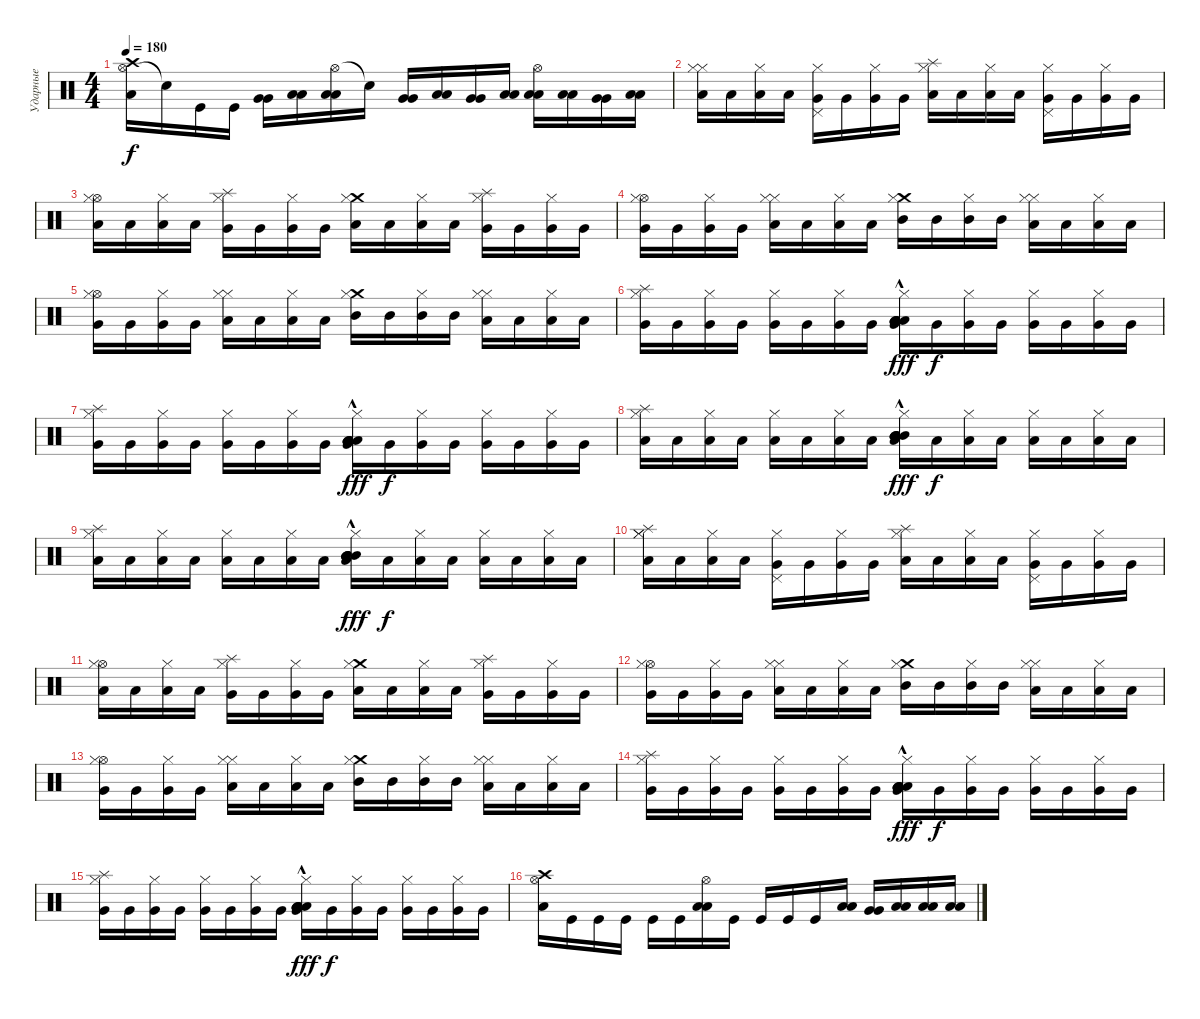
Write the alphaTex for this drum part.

\track ("Ударные" "Ударные") {instrument percussion}
\staff {score}
\articulation defaults
\ts (4 4)
\tempo 180
\clef neutral
\ks c
("Hi-Hat (open)" "Crash high (hit)" "Low Tom (hit)").16{dy f volume 13 balance 8} "Snare (hit)"{t}.16 "Kick (hit)".16 "Kick (hit)".16 ("Very Low Tom (hit)" "Very Low Tom (hit)").16{balance 10} ("Low Floor Tom (hit)" "Low Floor Tom (hit)").16{balance 5} ("Hi-Hat (open)" "Low Tom (hit)" "Low Tom (hit)").16{balance 8} "Snare (hit)"{t}.16 ("Very Low Tom (hit)" "Very Low Tom (hit)").16{balance 10} ("Low Floor Tom (hit)" "Low Floor Tom (hit)").16 ("Very Low Tom (hit)" "Very Low Tom (hit)").16{balance 10} ("Low Floor Tom (hit)" "Low Floor Tom (hit)").16 ("Hi-Hat (open)" "Low Tom (hit)" "Low Tom (hit)").16{balance 8} ("Low Floor Tom (hit)" "Low Floor Tom (hit)").16{balance 6} ("Very Low Tom (hit)" "Very Low Tom (hit)").16 ("Low Floor Tom (hit)" "Low Floor Tom (hit)").16{balance 5} |
("Hi-Hat (closed)" "Low Floor Tom (hit)" "Hi-Hat (closed)").16 "Low Floor Tom (hit)".16 ("Low Floor Tom (hit)" "Hi-Hat (closed)").16 "Low Floor Tom (hit)".16 ("Pedal Hi-Hat (hit)" "Very Low Tom (hit)" "Hi-Hat (closed)").16 "Very Low Tom (hit)".16 ("Very Low Tom (hit)" "Hi-Hat (closed)").16 "Very Low Tom (hit)".16 ("Splash (hit)" "Low Tom (hit)" "Hi-Hat (closed)").16 "Low Tom (hit)".16 ("Low Tom (hit)" "Hi-Hat (closed)").16 "Low Tom (hit)".16 ("Pedal Hi-Hat (hit)" "Very Low Tom (hit)" "Hi-Hat (closed)").16 "Very Low Tom (hit)".16 ("Very Low Tom (hit)" "Hi-Hat (closed)").16 "Very Low Tom (hit)".16 |
("Hi-Hat (open)" "Low Floor Tom (hit)" "Hi-Hat (closed)").16 "Low Floor Tom (hit)".16 ("Low Floor Tom (hit)" "Hi-Hat (closed)").16 "Low Floor Tom (hit)".16 ("Splash (hit)" "Very Low Tom (hit)" "Hi-Hat (closed)").16 "Very Low Tom (hit)".16 ("Very Low Tom (hit)" "Hi-Hat (closed)").16 "Very Low Tom (hit)".16 ("Crash medium (hit)" "Low Tom (hit)" "Hi-Hat (closed)").16 "Low Tom (hit)".16 ("Low Tom (hit)" "Hi-Hat (closed)").16 "Low Tom (hit)".16 ("Splash (hit)" "Very Low Tom (hit)" "Hi-Hat (closed)").16 "Very Low Tom (hit)".16 ("Very Low Tom (hit)" "Hi-Hat (closed)").16 "Very Low Tom (hit)".16 |
("Hi-Hat (open)" "Very Low Tom (hit)" "Hi-Hat (closed)").16 "Very Low Tom (hit)".16 ("Very Low Tom (hit)" "Hi-Hat (closed)").16 "Very Low Tom (hit)".16 ("Hi-Hat (closed)" "Low Tom (hit)" "Hi-Hat (closed)").16 "Low Tom (hit)".16 ("Low Tom (hit)" "Hi-Hat (closed)").16 "Low Tom (hit)".16 ("Crash medium (hit)" "Mid Tom (hit)" "Hi-Hat (closed)").16 "Mid Tom (hit)".16 ("Mid Tom (hit)" "Hi-Hat (closed)").16 "Mid Tom (hit)".16 ("Hi-Hat (closed)" "Low Tom (hit)" "Hi-Hat (closed)").16 "Low Tom (hit)".16 ("Low Tom (hit)" "Hi-Hat (closed)").16 "Low Tom (hit)".16 |
("Hi-Hat (open)" "Very Low Tom (hit)" "Hi-Hat (closed)").16 "Very Low Tom (hit)".16 ("Very Low Tom (hit)" "Hi-Hat (closed)").16 "Very Low Tom (hit)".16 ("Hi-Hat (closed)" "Low Tom (hit)" "Hi-Hat (closed)").16 "Low Tom (hit)".16 ("Low Tom (hit)" "Hi-Hat (closed)").16 "Low Tom (hit)".16 ("Crash medium (hit)" "Mid Tom (hit)" "Hi-Hat (closed)").16 "Mid Tom (hit)".16 ("Mid Tom (hit)" "Hi-Hat (closed)").16 "Mid Tom (hit)".16 ("Hi-Hat (closed)" "Low Tom (hit)" "Hi-Hat (closed)").16 "Low Tom (hit)".16 ("Low Tom (hit)" "Hi-Hat (closed)").16 "Low Tom (hit)".16 |
("Splash (hit)" "Very Low Tom (hit)" "Hi-Hat (closed)").16 "Very Low Tom (hit)".16 ("Very Low Tom (hit)" "Hi-Hat (closed)").16 "Very Low Tom (hit)".16 ("Very Low Tom (hit)" "Hi-Hat (closed)").16 "Very Low Tom (hit)".16 ("Very Low Tom (hit)" "Hi-Hat (closed)").16 "Very Low Tom (hit)".16 ("Low Tom (hit)"{hac} "Low Tom (hit)" "Low Tom (hit)" "Very Low Tom (hit)" "Hi-Hat (closed)" "Low Tom (hit)").16{dy fff} "Very Low Tom (hit)".16{dy f} ("Very Low Tom (hit)" "Hi-Hat (closed)").16 "Very Low Tom (hit)".16 ("Very Low Tom (hit)" "Hi-Hat (closed)").16 "Very Low Tom (hit)".16 ("Very Low Tom (hit)" "Hi-Hat (closed)").16 "Very Low Tom (hit)".16 |
("Splash (hit)" "Very Low Tom (hit)" "Hi-Hat (closed)").16 "Very Low Tom (hit)".16 ("Very Low Tom (hit)" "Hi-Hat (closed)").16 "Very Low Tom (hit)".16 ("Very Low Tom (hit)" "Hi-Hat (closed)").16 "Very Low Tom (hit)".16 ("Very Low Tom (hit)" "Hi-Hat (closed)").16 "Very Low Tom (hit)".16 ("Low Tom (hit)"{hac} "Low Tom (hit)" "Low Tom (hit)" "Very Low Tom (hit)" "Hi-Hat (closed)" "Low Tom (hit)").16{dy fff} "Very Low Tom (hit)".16{dy f} ("Very Low Tom (hit)" "Hi-Hat (closed)").16 "Very Low Tom (hit)".16 ("Very Low Tom (hit)" "Hi-Hat (closed)").16 "Very Low Tom (hit)".16 ("Very Low Tom (hit)" "Hi-Hat (closed)").16 "Very Low Tom (hit)".16 |
("Splash (hit)" "Low Floor Tom (hit)" "Hi-Hat (closed)").16 "Low Floor Tom (hit)".16 ("Low Floor Tom (hit)" "Hi-Hat (closed)").16 "Low Floor Tom (hit)".16 ("Low Floor Tom (hit)" "Hi-Hat (closed)").16 "Low Floor Tom (hit)".16 ("Low Floor Tom (hit)" "Hi-Hat (closed)").16 "Low Floor Tom (hit)".16 ("Mid Tom (hit)" "Mid Tom (hit)" "Mid Tom (hit)" "Low Floor Tom (hit)" "Hi-Hat (closed)" "Mid Tom (hit)"{hac}).16{dy fff} "Low Floor Tom (hit)".16{dy f} ("Low Floor Tom (hit)" "Hi-Hat (closed)").16 "Low Floor Tom (hit)".16 ("Low Floor Tom (hit)" "Hi-Hat (closed)").16 "Low Floor Tom (hit)".16 ("Low Floor Tom (hit)" "Hi-Hat (closed)").16 "Low Floor Tom (hit)".16 |
("Splash (hit)" "Low Floor Tom (hit)" "Hi-Hat (closed)").16 "Low Floor Tom (hit)".16 ("Low Floor Tom (hit)" "Hi-Hat (closed)").16 "Low Floor Tom (hit)".16 ("Low Floor Tom (hit)" "Hi-Hat (closed)").16 "Low Floor Tom (hit)".16 ("Low Floor Tom (hit)" "Hi-Hat (closed)").16 "Low Floor Tom (hit)".16 ("Mid Tom (hit)" "Mid Tom (hit)" "Mid Tom (hit)" "Low Floor Tom (hit)" "Hi-Hat (closed)" "Mid Tom (hit)"{hac}).16{dy fff} "Low Floor Tom (hit)".16{dy f} ("Low Floor Tom (hit)" "Hi-Hat (closed)").16 "Low Floor Tom (hit)".16 ("Low Floor Tom (hit)" "Hi-Hat (closed)").16 "Low Floor Tom (hit)".16 ("Low Floor Tom (hit)" "Hi-Hat (closed)").16 "Low Floor Tom (hit)".16 |
("Splash (hit)" "Hi-Hat (closed)" "Low Floor Tom (hit)" "Hi-Hat (closed)").16 "Low Floor Tom (hit)".16 ("Low Floor Tom (hit)" "Hi-Hat (closed)").16 "Low Floor Tom (hit)".16 ("Pedal Hi-Hat (hit)" "Very Low Tom (hit)" "Hi-Hat (closed)").16 "Very Low Tom (hit)".16 ("Very Low Tom (hit)" "Hi-Hat (closed)").16 "Very Low Tom (hit)".16 ("Splash (hit)" "Low Tom (hit)" "Hi-Hat (closed)").16 "Low Tom (hit)".16 ("Low Tom (hit)" "Hi-Hat (closed)").16 "Low Tom (hit)".16 ("Pedal Hi-Hat (hit)" "Very Low Tom (hit)" "Hi-Hat (closed)").16 "Very Low Tom (hit)".16 ("Very Low Tom (hit)" "Hi-Hat (closed)").16 "Very Low Tom (hit)".16 |
("Hi-Hat (open)" "Low Floor Tom (hit)" "Hi-Hat (closed)").16 "Low Floor Tom (hit)".16 ("Low Floor Tom (hit)" "Hi-Hat (closed)").16 "Low Floor Tom (hit)".16 ("Splash (hit)" "Very Low Tom (hit)" "Hi-Hat (closed)").16 "Very Low Tom (hit)".16 ("Very Low Tom (hit)" "Hi-Hat (closed)").16 "Very Low Tom (hit)".16 ("Crash medium (hit)" "Low Tom (hit)" "Hi-Hat (closed)").16 "Low Tom (hit)".16 ("Low Tom (hit)" "Hi-Hat (closed)").16 "Low Tom (hit)".16 ("Splash (hit)" "Very Low Tom (hit)" "Hi-Hat (closed)").16 "Very Low Tom (hit)".16 ("Very Low Tom (hit)" "Hi-Hat (closed)").16 "Very Low Tom (hit)".16 |
("Hi-Hat (open)" "Very Low Tom (hit)" "Hi-Hat (closed)").16 "Very Low Tom (hit)".16 ("Very Low Tom (hit)" "Hi-Hat (closed)").16 "Very Low Tom (hit)".16 ("Hi-Hat (closed)" "Low Tom (hit)" "Hi-Hat (closed)").16 "Low Tom (hit)".16 ("Low Tom (hit)" "Hi-Hat (closed)").16 "Low Tom (hit)".16 ("Crash medium (hit)" "Mid Tom (hit)" "Hi-Hat (closed)").16 "Mid Tom (hit)".16 ("Mid Tom (hit)" "Hi-Hat (closed)").16 "Mid Tom (hit)".16 ("Hi-Hat (closed)" "Low Tom (hit)" "Hi-Hat (closed)").16 "Low Tom (hit)".16 ("Low Tom (hit)" "Hi-Hat (closed)").16 "Low Tom (hit)".16 |
("Hi-Hat (open)" "Very Low Tom (hit)" "Hi-Hat (closed)").16 "Very Low Tom (hit)".16 ("Very Low Tom (hit)" "Hi-Hat (closed)").16 "Very Low Tom (hit)".16 ("Hi-Hat (closed)" "Low Tom (hit)" "Hi-Hat (closed)").16 "Low Tom (hit)".16 ("Low Tom (hit)" "Hi-Hat (closed)").16 "Low Tom (hit)".16 ("Crash medium (hit)" "Mid Tom (hit)" "Hi-Hat (closed)").16 "Mid Tom (hit)".16 ("Mid Tom (hit)" "Hi-Hat (closed)").16 "Mid Tom (hit)".16 ("Hi-Hat (closed)" "Low Tom (hit)" "Hi-Hat (closed)").16 "Low Tom (hit)".16 ("Low Tom (hit)" "Hi-Hat (closed)").16 "Low Tom (hit)".16 |
("Splash (hit)" "Very Low Tom (hit)" "Hi-Hat (closed)").16 "Very Low Tom (hit)".16 ("Very Low Tom (hit)" "Hi-Hat (closed)").16 "Very Low Tom (hit)".16 ("Very Low Tom (hit)" "Hi-Hat (closed)").16 "Very Low Tom (hit)".16 ("Very Low Tom (hit)" "Hi-Hat (closed)").16 "Very Low Tom (hit)".16 ("Low Tom (hit)"{hac} "Low Tom (hit)" "Low Tom (hit)" "Very Low Tom (hit)" "Hi-Hat (closed)" "Low Tom (hit)").16{dy fff} "Very Low Tom (hit)".16{dy f} ("Very Low Tom (hit)" "Hi-Hat (closed)").16 "Very Low Tom (hit)".16 ("Very Low Tom (hit)" "Hi-Hat (closed)").16 "Very Low Tom (hit)".16 ("Very Low Tom (hit)" "Hi-Hat (closed)").16 "Very Low Tom (hit)".16 |
("Splash (hit)" "Very Low Tom (hit)" "Hi-Hat (closed)").16 "Very Low Tom (hit)".16 ("Very Low Tom (hit)" "Hi-Hat (closed)").16 "Very Low Tom (hit)".16 ("Very Low Tom (hit)" "Hi-Hat (closed)").16 "Very Low Tom (hit)".16 ("Very Low Tom (hit)" "Hi-Hat (closed)").16 "Very Low Tom (hit)".16 ("Low Tom (hit)"{hac} "Low Tom (hit)" "Low Tom (hit)" "Very Low Tom (hit)" "Hi-Hat (closed)" "Low Tom (hit)").16{dy fff} "Very Low Tom (hit)".16{dy f} ("Very Low Tom (hit)" "Hi-Hat (closed)").16 "Very Low Tom (hit)".16 ("Very Low Tom (hit)" "Hi-Hat (closed)").16 "Very Low Tom (hit)".16 ("Very Low Tom (hit)" "Hi-Hat (closed)").16 "Very Low Tom (hit)".16 |
("Hi-Hat (open)" "Crash high (hit)" "Low Tom (hit)").16{balance 8} "Kick (hit)".16 "Kick (hit)".16 "Kick (hit)".16 "Kick (hit)".16 "Kick (hit)".16 ("Hi-Hat (open)" "Low Tom (hit)" "Low Tom (hit)").16 "Kick (hit)".16 "Kick (hit)".16 "Kick (hit)".16 "Kick (hit)".16 ("Low Tom (hit)" "Low Tom (hit)").16 ("Very Low Tom (hit)" "Very Low Tom (hit)").16{balance 10} ("Low Floor Tom (hit)" "Low Floor Tom (hit)").16{balance 6} ("Low Floor Tom (hit)" "Low Floor Tom (hit)").16 ("Low Floor Tom (hit)" "Low Floor Tom (hit)").16
